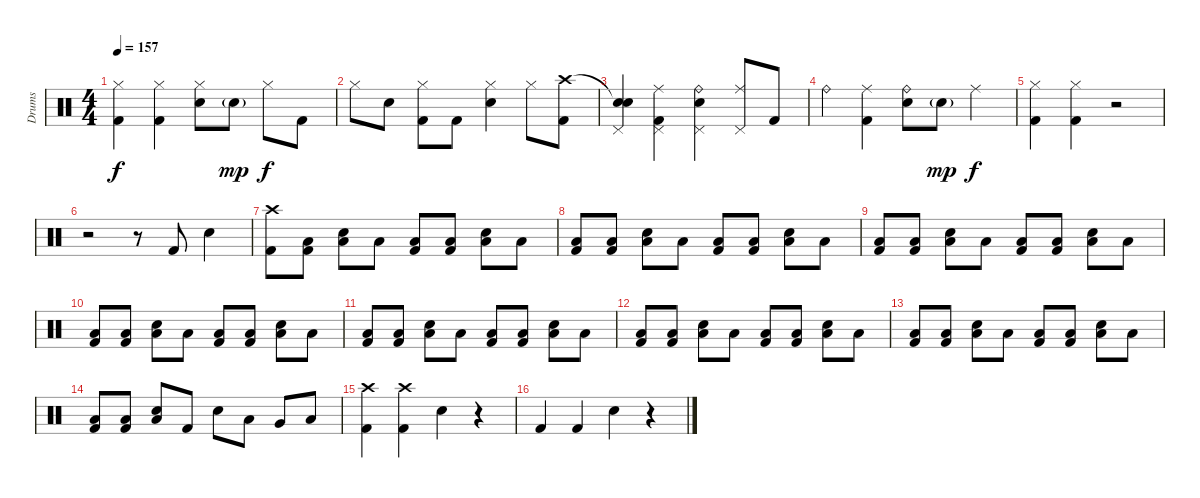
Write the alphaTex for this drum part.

\track ("Drums" "Drums") {instrument percussion}
\staff {score}
\articulation defaults
\ts (4 4)
\tempo 157
\clef neutral
\ks c
("Hi-Hat (closed)" "Kick (hit) 2").4{dy f} ("Hi-Hat (closed)" "Kick (hit) 2").4 ("Hi-Hat (closed)" "Snare (hit) 2").8 "Snare (hit) 2"{g}.8{dy mp} "Hi-Hat (closed)".8{dy f} "Kick (hit) 2".8 |
"Hi-Hat (closed)".8 "Snare (hit) 2".8 ("Hi-Hat (closed)" "Kick (hit) 2").8 "Kick (hit) 2".8 ("Hi-Hat (closed)" "Snare (hit) 2").4 "Hi-Hat (closed)".8 ("Crash high (hit)" "Kick (hit) 2").8 |
("Snare (hit)"{t} "Pedal Hi-Hat (hit)" "Snare (hit)").4 ("Ride (middle)" "Pedal Hi-Hat (hit)" "Kick (hit) 2").4 ("Ride (bell)" "Snare (hit) 2" "Pedal Hi-Hat (hit)").4 ("Ride (middle)" "Pedal Hi-Hat (hit)").8 "Kick (hit) 2".8 |
"Ride (bell)".4 ("Ride (middle)" "Kick (hit) 2").4 ("Ride (bell)" "Snare (hit) 2").8 "Snare (hit) 2"{g}.8{dy mp} "Ride (middle)".4{dy f} |
("Hi-Hat (closed)" "Kick (hit) 2").4 ("Hi-Hat (closed)" "Kick (hit) 2").4 r.2 |
r.2 r.8 "Kick (hit) 2".8 "Snare (hit) 2".4 |
("Crash high (hit)" "Kick (hit) 2").8 ("Low Floor Tom (hit)" "Kick (hit) 2").8 ("Snare (hit) 2" "Low Floor Tom (hit)").8 "Low Floor Tom (hit)".8 ("Low Floor Tom (hit)" "Kick (hit) 2").8 ("Low Floor Tom (hit)" "Kick (hit) 2").8 ("Snare (hit) 2" "Low Floor Tom (hit)").8 "Low Floor Tom (hit)".8 |
("Low Floor Tom (hit)" "Kick (hit) 2").8 ("Low Floor Tom (hit)" "Kick (hit) 2").8 ("Snare (hit) 2" "Low Floor Tom (hit)").8 "Low Floor Tom (hit)".8 ("Low Floor Tom (hit)" "Kick (hit) 2").8 ("Low Floor Tom (hit)" "Kick (hit) 2").8 ("Snare (hit) 2" "Low Floor Tom (hit)").8 "Low Floor Tom (hit)".8 |
("Low Floor Tom (hit)" "Kick (hit) 2").8 ("Low Floor Tom (hit)" "Kick (hit) 2").8 ("Snare (hit) 2" "Low Floor Tom (hit)").8 "Low Floor Tom (hit)".8 ("Low Floor Tom (hit)" "Kick (hit) 2").8 ("Low Floor Tom (hit)" "Kick (hit) 2").8 ("Snare (hit) 2" "Low Floor Tom (hit)").8 "Low Floor Tom (hit)".8 |
("Low Floor Tom (hit)" "Kick (hit) 2").8 ("Low Floor Tom (hit)" "Kick (hit) 2").8 ("Snare (hit) 2" "Low Floor Tom (hit)").8 "Low Floor Tom (hit)".8 ("Low Floor Tom (hit)" "Kick (hit) 2").8 ("Low Floor Tom (hit)" "Kick (hit) 2").8 ("Snare (hit) 2" "Low Floor Tom (hit)").8 "Low Floor Tom (hit)".8 |
("Low Floor Tom (hit)" "Kick (hit) 2").8 ("Low Floor Tom (hit)" "Kick (hit) 2").8 ("Snare (hit) 2" "Low Floor Tom (hit)").8 "Low Floor Tom (hit)".8 ("Low Floor Tom (hit)" "Kick (hit) 2").8 ("Low Floor Tom (hit)" "Kick (hit) 2").8 ("Snare (hit) 2" "Low Floor Tom (hit)").8 "Low Floor Tom (hit)".8 |
("Low Floor Tom (hit)" "Kick (hit) 2").8 ("Low Floor Tom (hit)" "Kick (hit) 2").8 ("Snare (hit) 2" "Low Floor Tom (hit)").8 "Low Floor Tom (hit)".8 ("Low Floor Tom (hit)" "Kick (hit) 2").8 ("Low Floor Tom (hit)" "Kick (hit) 2").8 ("Snare (hit) 2" "Low Floor Tom (hit)").8 "Low Floor Tom (hit)".8 |
("Low Floor Tom (hit)" "Kick (hit) 2").8 ("Low Floor Tom (hit)" "Kick (hit) 2").8 ("Snare (hit) 2" "Low Floor Tom (hit)").8 "Low Floor Tom (hit)".8 ("Low Floor Tom (hit)" "Kick (hit) 2").8 ("Low Floor Tom (hit)" "Kick (hit) 2").8 ("Snare (hit) 2" "Low Floor Tom (hit)").8 "Low Floor Tom (hit)".8 |
("Low Floor Tom (hit)" "Kick (hit) 2").8 ("Low Floor Tom (hit)" "Kick (hit) 2").8 ("Snare (hit) 2" "Low Floor Tom (hit)").8 "Kick (hit) 2".8 "Snare (hit) 2".8 "Low Tom (hit)".8 "Very Low Tom (hit)".8 "Low Floor Tom (hit)".8 |
("Crash high (hit)" "Kick (hit) 2").4 ("Crash high (hit)" "Kick (hit) 2").4 "Snare (hit) 2".4 r.4 |
"Kick (hit) 2".4 "Kick (hit) 2".4 "Snare (hit) 2".4 r.4
